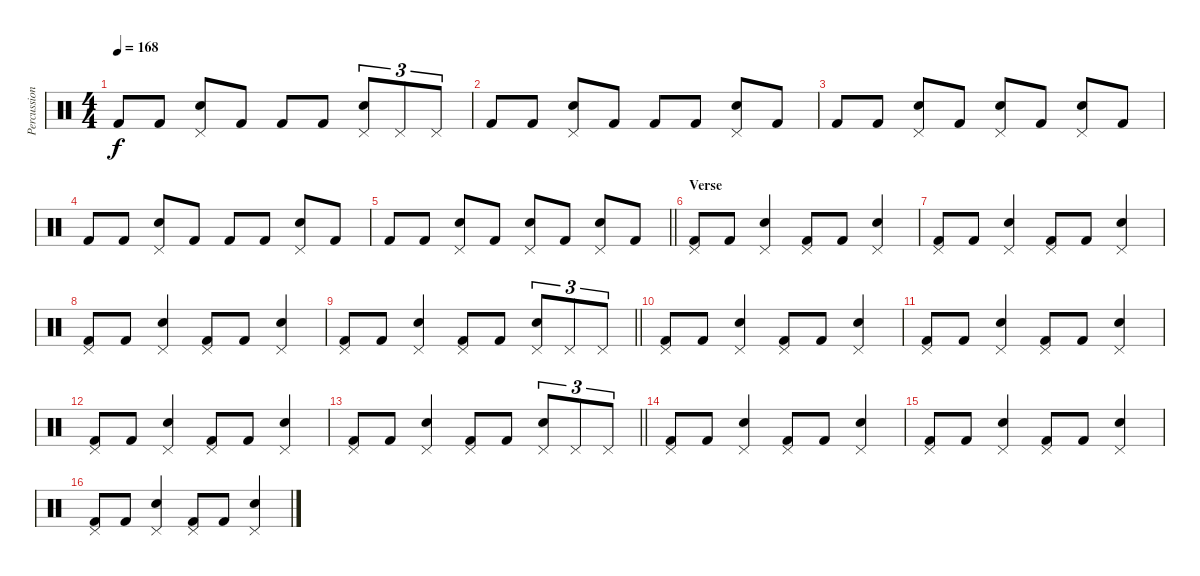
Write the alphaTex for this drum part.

\track ("Percussion" "Percussion") {instrument percussion}
\staff {score}
\articulation defaults
\ts (4 4)
\tempo 168
\clef neutral
\ks c "Kick (hit) 2".8{dy f} "Kick (hit) 2".8
("Pedal Hi-Hat (hit)" "Electric Snare (hit)").8 "Kick (hit) 2".8 "Kick (hit) 2".8 "Kick (hit) 2".8 ("Pedal Hi-Hat (hit)" "Electric Snare (hit)").8{tu (3 2)} "Pedal Hi-Hat (hit)".8{tu (3 2)} "Pedal Hi-Hat (hit)".8{tu (3 2)} |
"Kick (hit) 2".8 "Kick (hit) 2".8 ("Pedal Hi-Hat (hit)" "Electric Snare (hit)").8 "Kick (hit) 2".8 "Kick (hit) 2".8 "Kick (hit) 2".8 ("Pedal Hi-Hat (hit)" "Electric Snare (hit)").8 "Kick (hit) 2".8 |
"Kick (hit) 2".8 "Kick (hit) 2".8 ("Pedal Hi-Hat (hit)" "Electric Snare (hit)").8 "Kick (hit) 2".8 ("Pedal Hi-Hat (hit)" "Electric Snare (hit)").8 "Kick (hit) 2".8 ("Pedal Hi-Hat (hit)" "Electric Snare (hit)").8 "Kick (hit) 2".8 |
"Kick (hit) 2".8 "Kick (hit) 2".8 ("Pedal Hi-Hat (hit)" "Electric Snare (hit)").8 "Kick (hit) 2".8 "Kick (hit) 2".8 "Kick (hit) 2".8 ("Pedal Hi-Hat (hit)" "Electric Snare (hit)").8 "Kick (hit) 2".8 |
\barLineRight lightlight "Kick (hit) 2".8 "Kick (hit) 2".8
("Pedal Hi-Hat (hit)" "Electric Snare (hit)").8 "Kick (hit) 2".8 ("Pedal Hi-Hat (hit)" "Electric Snare (hit)").8 "Kick (hit) 2".8 ("Pedal Hi-Hat (hit)" "Electric Snare (hit)").8 "Kick (hit) 2".8 |
\section ("" "Verse")
("Pedal Hi-Hat (hit)" "Kick (hit) 2").8 "Kick (hit) 2".8 ("Pedal Hi-Hat (hit)" "Electric Snare (hit)").4 ("Pedal Hi-Hat (hit)" "Kick (hit) 2").8 "Kick (hit) 2".8 ("Pedal Hi-Hat (hit)" "Electric Snare (hit)").4 |
("Pedal Hi-Hat (hit)" "Kick (hit) 2").8 "Kick (hit) 2".8 ("Pedal Hi-Hat (hit)" "Electric Snare (hit)").4 ("Pedal Hi-Hat (hit)" "Kick (hit) 2").8 "Kick (hit) 2".8 ("Pedal Hi-Hat (hit)" "Electric Snare (hit)").4 |
("Pedal Hi-Hat (hit)" "Kick (hit) 2").8 "Kick (hit) 2".8 ("Pedal Hi-Hat (hit)" "Electric Snare (hit)").4 ("Pedal Hi-Hat (hit)" "Kick (hit) 2").8 "Kick (hit) 2".8 ("Pedal Hi-Hat (hit)" "Electric Snare (hit)").4 |
\barLineRight lightlight
("Pedal Hi-Hat (hit)" "Kick (hit) 2").8 "Kick (hit) 2".8 ("Pedal Hi-Hat (hit)" "Electric Snare (hit)").4 ("Pedal Hi-Hat (hit)" "Kick (hit) 2").8 "Kick (hit) 2".8 ("Pedal Hi-Hat (hit)" "Electric Snare (hit)").8{tu (3 2)} "Pedal Hi-Hat (hit)".8{tu (3 2)} "Pedal Hi-Hat (hit)".8{tu (3 2)} |
("Pedal Hi-Hat (hit)" "Kick (hit) 2").8 "Kick (hit) 2".8 ("Pedal Hi-Hat (hit)" "Electric Snare (hit)").4 ("Pedal Hi-Hat (hit)" "Kick (hit) 2").8 "Kick (hit) 2".8 ("Pedal Hi-Hat (hit)" "Electric Snare (hit)").4 |
("Pedal Hi-Hat (hit)" "Kick (hit) 2").8 "Kick (hit) 2".8 ("Pedal Hi-Hat (hit)" "Electric Snare (hit)").4 ("Pedal Hi-Hat (hit)" "Kick (hit) 2").8 "Kick (hit) 2".8 ("Pedal Hi-Hat (hit)" "Electric Snare (hit)").4 |
("Pedal Hi-Hat (hit)" "Kick (hit) 2").8 "Kick (hit) 2".8 ("Pedal Hi-Hat (hit)" "Electric Snare (hit)").4 ("Pedal Hi-Hat (hit)" "Kick (hit) 2").8 "Kick (hit) 2".8 ("Pedal Hi-Hat (hit)" "Electric Snare (hit)").4 |
\barLineRight lightlight
("Pedal Hi-Hat (hit)" "Kick (hit) 2").8 "Kick (hit) 2".8 ("Pedal Hi-Hat (hit)" "Electric Snare (hit)").4 ("Pedal Hi-Hat (hit)" "Kick (hit) 2").8 "Kick (hit) 2".8 ("Pedal Hi-Hat (hit)" "Electric Snare (hit)").8{tu (3 2)} "Pedal Hi-Hat (hit)".8{tu (3 2)} "Pedal Hi-Hat (hit)".8{tu (3 2)} |
("Pedal Hi-Hat (hit)" "Kick (hit) 2").8 "Kick (hit) 2".8 ("Pedal Hi-Hat (hit)" "Electric Snare (hit)").4 ("Pedal Hi-Hat (hit)" "Kick (hit) 2").8 "Kick (hit) 2".8 ("Pedal Hi-Hat (hit)" "Electric Snare (hit)").4 |
("Pedal Hi-Hat (hit)" "Kick (hit) 2").8 "Kick (hit) 2".8 ("Pedal Hi-Hat (hit)" "Electric Snare (hit)").4 ("Pedal Hi-Hat (hit)" "Kick (hit) 2").8 "Kick (hit) 2".8 ("Pedal Hi-Hat (hit)" "Electric Snare (hit)").4 |
("Pedal Hi-Hat (hit)" "Kick (hit) 2").8 "Kick (hit) 2".8 ("Pedal Hi-Hat (hit)" "Electric Snare (hit)").4 ("Pedal Hi-Hat (hit)" "Kick (hit) 2").8 "Kick (hit) 2".8 ("Pedal Hi-Hat (hit)" "Electric Snare (hit)").4
